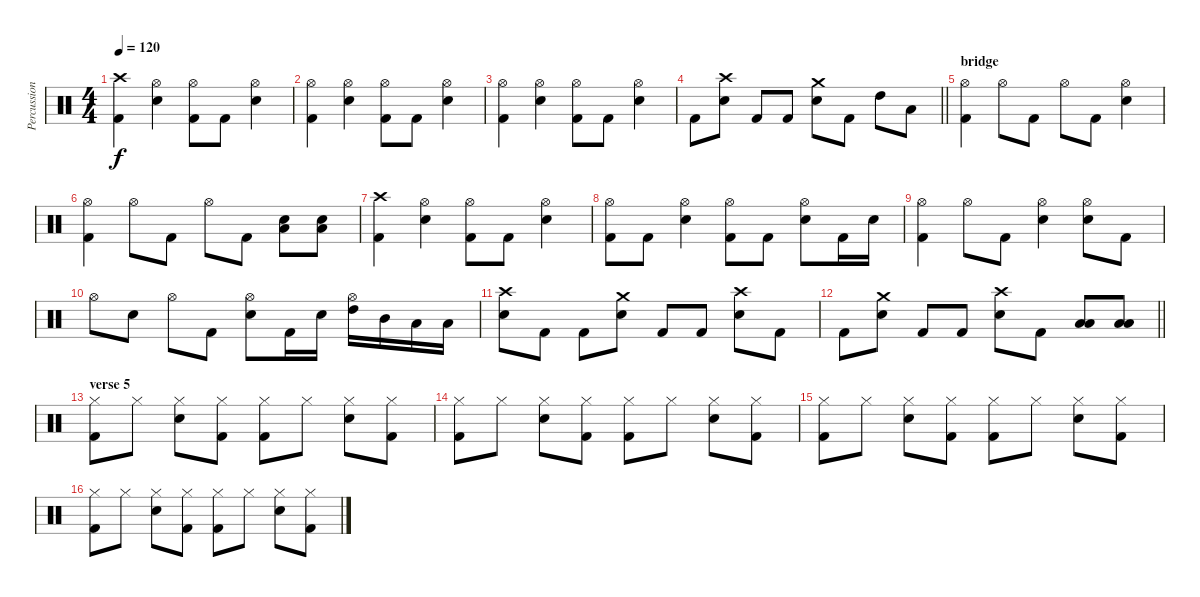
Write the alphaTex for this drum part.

\track ("Percussion" "Percussion") {instrument percussion}
\staff {score}
\articulation defaults
\ts (4 4)
\tempo 120
\clef neutral
\ks c
("Kick (hit) 2" "Crash high (hit)").4{dy f} ("Snare (hit) 2" "Hi-Hat (open)").4 ("Kick (hit) 2" "Hi-Hat (open)").8 "Kick (hit) 2".8 ("Snare (hit) 2" "Hi-Hat (open)").4 |
("Kick (hit) 2" "Hi-Hat (open)").4 ("Snare (hit) 2" "Hi-Hat (open)").4 ("Kick (hit) 2" "Hi-Hat (open)").8 "Kick (hit) 2".8 ("Snare (hit) 2" "Hi-Hat (open)").4 |
("Kick (hit) 2" "Hi-Hat (open)").4 ("Snare (hit) 2" "Hi-Hat (open)").4 ("Kick (hit) 2" "Hi-Hat (open)").8 "Kick (hit) 2".8 ("Snare (hit) 2" "Hi-Hat (open)").4 |
\barLineRight lightlight "Kick (hit) 2".8
("Snare (hit) 2" "Crash high (hit)").8 "Kick (hit) 2".8 "Kick (hit) 2".8 ("Snare (hit) 2" "Crash medium (hit)").8 "Kick (hit) 2".8 "High Tom (hit)".8 "Low Tom (hit)".8 |
\section ("" "bridge")
("Kick (hit) 2" "Hi-Hat (open)").4 "Hi-Hat (open)".8 "Kick (hit) 2".8 "Hi-Hat (open)".8 "Kick (hit) 2".8 ("Snare (hit) 2" "Hi-Hat (open)").4 |
("Kick (hit) 2" "Hi-Hat (open)").4 "Hi-Hat (open)".8 "Kick (hit) 2".8 "Hi-Hat (open)".8 "Kick (hit) 2".8 ("Snare (hit) 2" "Low Tom (hit)").8 ("Snare (hit) 2" "Low Tom (hit)").8 |
("Kick (hit) 2" "Crash high (hit)").4 ("Snare (hit) 2" "Hi-Hat (open)").4 ("Kick (hit) 2" "Hi-Hat (open)").8 "Kick (hit) 2".8 ("Snare (hit) 2" "Hi-Hat (open)").4 |
("Kick (hit) 2" "Hi-Hat (open)").8 "Kick (hit) 2".8 ("Snare (hit) 2" "Hi-Hat (open)").4 ("Kick (hit) 2" "Hi-Hat (open)").8 "Kick (hit) 2".8 ("Snare (hit) 2" "Hi-Hat (open)").8 "Kick (hit) 2".16 "Snare (hit) 2".16 |
("Kick (hit) 2" "Hi-Hat (open)").4 "Hi-Hat (open)".8 "Kick (hit) 2".8 ("Snare (hit) 2" "Hi-Hat (open)").4 ("Snare (hit) 2" "Hi-Hat (open)").8 "Kick (hit) 2".8 |
"Hi-Hat (open)".8 "Snare (hit) 2".8 "Hi-Hat (open)".8 "Kick (hit) 2".8 ("Snare (hit) 2" "Hi-Hat (open)").8 "Kick (hit) 2".16 "Snare (hit) 2".16 ("High Tom (hit)" "Hi-Hat (open)").16 "Mid Tom (hit)".16 "Low Tom (hit)".16 "Low Floor Tom (hit)".16 |
("Snare (hit) 2" "Crash high (hit)").8 "Kick (hit) 2".8 "Kick (hit) 2".8 ("Snare (hit) 2" "Crash medium (hit)").8 "Kick (hit) 2".8 "Kick (hit) 2".8 ("Snare (hit) 2" "Crash high (hit)").8 "Kick (hit) 2".8 |
\barLineRight lightlight "Kick (hit) 2".8
("Snare (hit) 2" "Crash medium (hit)").8 "Kick (hit) 2".8 "Kick (hit) 2".8 ("Snare (hit) 2" "Crash high (hit)").8 "Kick (hit) 2".8 ("Low Tom (hit)" "Low Floor Tom (hit)").8 ("Low Tom (hit)" "Low Floor Tom (hit)").8 |
\section ("" "verse 5")
("Kick (hit) 2" "Hi-Hat (closed)").8 "Hi-Hat (closed)".8 ("Snare (hit) 2" "Hi-Hat (closed)").8 ("Kick (hit) 2" "Hi-Hat (closed)").8 ("Kick (hit) 2" "Hi-Hat (closed)").8 "Hi-Hat (closed)".8 ("Snare (hit) 2" "Hi-Hat (closed)").8 ("Kick (hit) 2" "Hi-Hat (closed)").8 |
("Kick (hit) 2" "Hi-Hat (closed)").8 "Hi-Hat (closed)".8 ("Snare (hit) 2" "Hi-Hat (closed)").8 ("Kick (hit) 2" "Hi-Hat (closed)").8 ("Kick (hit) 2" "Hi-Hat (closed)").8 "Hi-Hat (closed)".8 ("Snare (hit) 2" "Hi-Hat (closed)").8 ("Kick (hit) 2" "Hi-Hat (closed)").8 |
("Kick (hit) 2" "Hi-Hat (closed)").8 "Hi-Hat (closed)".8 ("Snare (hit) 2" "Hi-Hat (closed)").8 ("Kick (hit) 2" "Hi-Hat (closed)").8 ("Kick (hit) 2" "Hi-Hat (closed)").8 "Hi-Hat (closed)".8 ("Snare (hit) 2" "Hi-Hat (closed)").8 ("Kick (hit) 2" "Hi-Hat (closed)").8 |
("Kick (hit) 2" "Hi-Hat (closed)").8 "Hi-Hat (closed)".8 ("Snare (hit) 2" "Hi-Hat (closed)").8 ("Kick (hit) 2" "Hi-Hat (closed)").8 ("Kick (hit) 2" "Hi-Hat (closed)").8 "Hi-Hat (closed)".8 ("Snare (hit) 2" "Hi-Hat (closed)").8 ("Kick (hit) 2" "Hi-Hat (closed)").8
